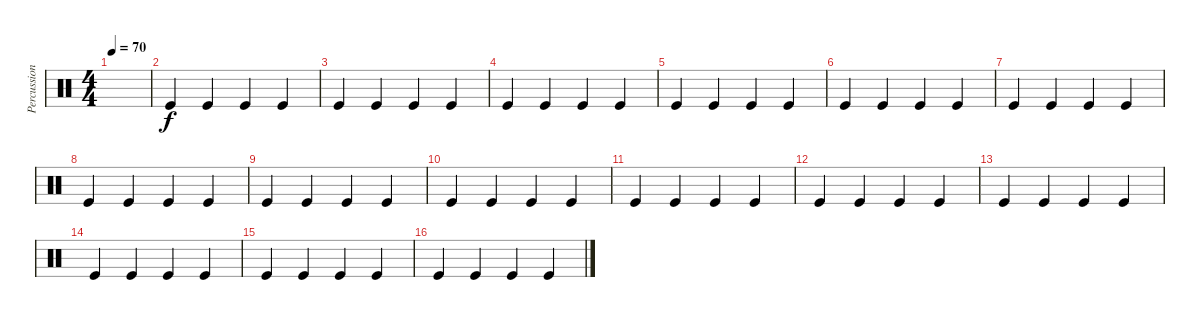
\track ("Percussion" "Percussion") {instrument percussion}
\staff {score}
\articulation defaults
\ts (4 4)
\tempo 70
\clef neutral
\ks c
|
"Kick (hit)".4 "Kick (hit)".4 "Kick (hit)".4 "Kick (hit)".4 |
"Kick (hit)".4 "Kick (hit)".4 "Kick (hit)".4 "Kick (hit)".4 |
"Kick (hit)".4 "Kick (hit)".4 "Kick (hit)".4 "Kick (hit)".4 |
"Kick (hit)".4 "Kick (hit)".4 "Kick (hit)".4 "Kick (hit)".4 |
"Kick (hit)".4 "Kick (hit)".4 "Kick (hit)".4 "Kick (hit)".4 |
"Kick (hit)".4 "Kick (hit)".4 "Kick (hit)".4 "Kick (hit)".4 |
"Kick (hit)".4 "Kick (hit)".4 "Kick (hit)".4 "Kick (hit)".4 |
"Kick (hit)".4 "Kick (hit)".4 "Kick (hit)".4 "Kick (hit)".4 |
"Kick (hit)".4 "Kick (hit)".4 "Kick (hit)".4 "Kick (hit)".4 |
"Kick (hit)".4 "Kick (hit)".4 "Kick (hit)".4 "Kick (hit)".4 |
"Kick (hit)".4 "Kick (hit)".4 "Kick (hit)".4 "Kick (hit)".4 |
"Kick (hit)".4 "Kick (hit)".4 "Kick (hit)".4 "Kick (hit)".4 |
"Kick (hit)".4 "Kick (hit)".4 "Kick (hit)".4 "Kick (hit)".4 |
"Kick (hit)".4 "Kick (hit)".4 "Kick (hit)".4 "Kick (hit)".4 |
"Kick (hit)".4 "Kick (hit)".4 "Kick (hit)".4 "Kick (hit)".4
